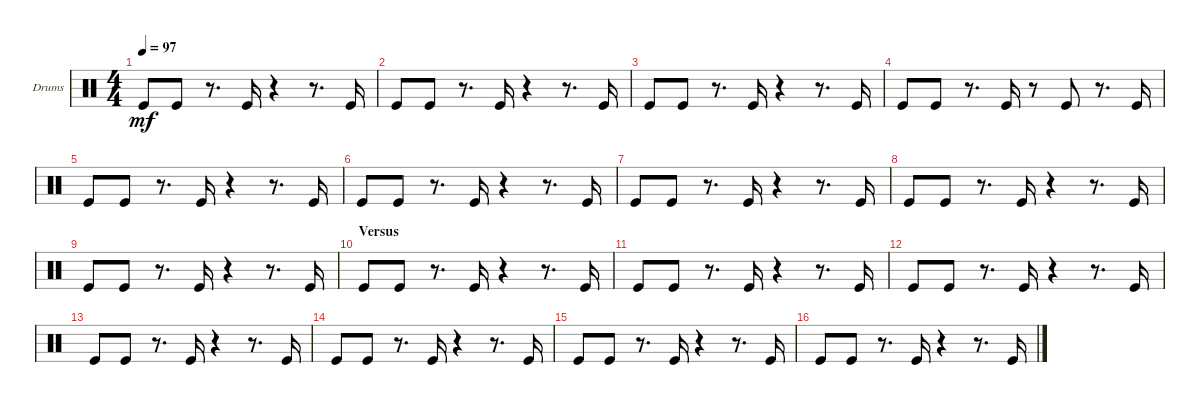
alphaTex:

\bracketExtendMode groupsimilarinstruments
\firstSystemTrackNameOrientation horizontal
\otherSystemsTrackNameOrientation horizontal
\track ("Kick" "Drums") {instrument percussion}
\staff {score}
\articulation defaults
\ts (4 4)
\tempo 97
\clef neutral
\ks c "Kick (hit)".8{dy mf} "Kick (hit)".8
r.8{d} "Kick (hit)".16 r.4 r.8{d} "Kick (hit)".16 |
"Kick (hit)".8 "Kick (hit)".8 r.8{d} "Kick (hit)".16 r.4 r.8{d} "Kick (hit)".16 |
"Kick (hit)".8 "Kick (hit)".8 r.8{d} "Kick (hit)".16 r.4 r.8{d} "Kick (hit)".16 |
"Kick (hit)".8 "Kick (hit)".8 r.8{d} "Kick (hit)".16 r.8 "Kick (hit)".8 r.8{d} "Kick (hit)".16 |
"Kick (hit)".8 "Kick (hit)".8 r.8{d} "Kick (hit)".16 r.4 r.8{d} "Kick (hit)".16 |
"Kick (hit)".8 "Kick (hit)".8 r.8{d} "Kick (hit)".16 r.4 r.8{d} "Kick (hit)".16 |
"Kick (hit)".8 "Kick (hit)".8 r.8{d} "Kick (hit)".16 r.4 r.8{d} "Kick (hit)".16 |
"Kick (hit)".8 "Kick (hit)".8 r.8{d} "Kick (hit)".16 r.4 r.8{d} "Kick (hit)".16 |
"Kick (hit)".8 "Kick (hit)".8 r.8{d} "Kick (hit)".16 r.4 r.8{d} "Kick (hit)".16 |
\section ("" "Versus")
"Kick (hit)".8 "Kick (hit)".8 r.8{d} "Kick (hit)".16 r.4 r.8{d} "Kick (hit)".16 |
"Kick (hit)".8 "Kick (hit)".8 r.8{d} "Kick (hit)".16 r.4 r.8{d} "Kick (hit)".16 |
"Kick (hit)".8 "Kick (hit)".8 r.8{d} "Kick (hit)".16 r.4 r.8{d} "Kick (hit)".16 |
"Kick (hit)".8 "Kick (hit)".8 r.8{d} "Kick (hit)".16 r.4 r.8{d} "Kick (hit)".16 |
"Kick (hit)".8 "Kick (hit)".8 r.8{d} "Kick (hit)".16 r.4 r.8{d} "Kick (hit)".16 |
"Kick (hit)".8 "Kick (hit)".8 r.8{d} "Kick (hit)".16 r.4 r.8{d} "Kick (hit)".16 |
"Kick (hit)".8 "Kick (hit)".8 r.8{d} "Kick (hit)".16 r.4 r.8{d} "Kick (hit)".16
